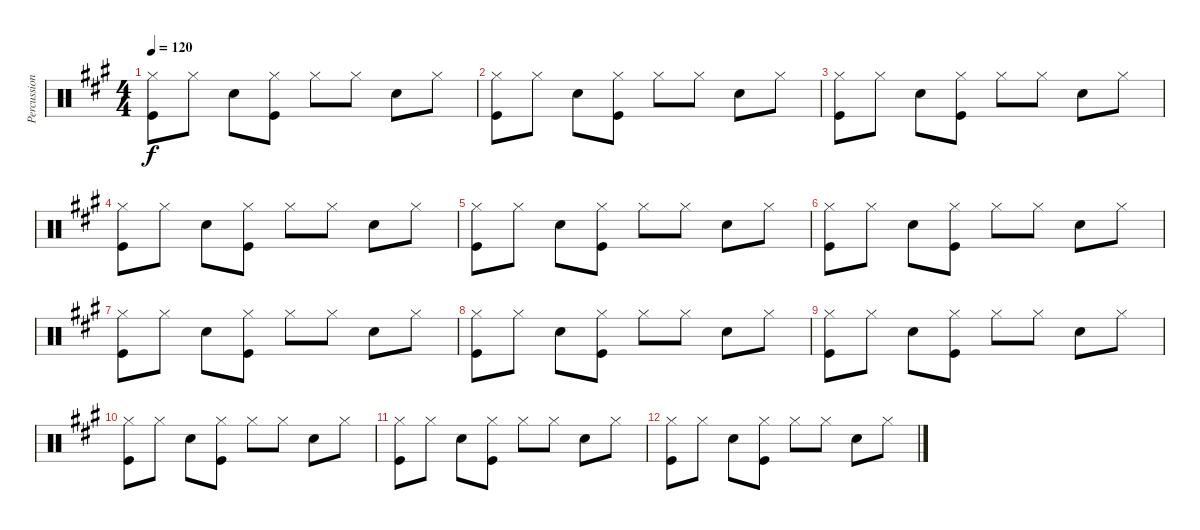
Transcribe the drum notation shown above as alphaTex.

\track ("Percussions" "Percussion") {instrument percussion}
\staff {score}
\articulation defaults
\ts (4 4)
\tempo 120
\clef neutral
\ks a
("Kick (hit)" "Hi-Hat (closed)").8{dy f} "Hi-Hat (closed)".8 "Snare (hit) 2".8 ("Hi-Hat (closed)" "Kick (hit)").8 "Hi-Hat (closed)".8 "Hi-Hat (closed)".8 "Snare (hit) 2".8 "Hi-Hat (closed)".8 |
("Kick (hit)" "Hi-Hat (closed)").8 "Hi-Hat (closed)".8 "Snare (hit) 2".8 ("Hi-Hat (closed)" "Kick (hit)").8 "Hi-Hat (closed)".8 "Hi-Hat (closed)".8 "Snare (hit) 2".8 "Hi-Hat (closed)".8 |
("Kick (hit)" "Hi-Hat (closed)").8 "Hi-Hat (closed)".8 "Snare (hit) 2".8 ("Hi-Hat (closed)" "Kick (hit)").8 "Hi-Hat (closed)".8 "Hi-Hat (closed)".8 "Snare (hit) 2".8 "Hi-Hat (closed)".8 |
("Kick (hit)" "Hi-Hat (closed)").8 "Hi-Hat (closed)".8 "Snare (hit) 2".8 ("Hi-Hat (closed)" "Kick (hit)").8 "Hi-Hat (closed)".8 "Hi-Hat (closed)".8 "Snare (hit) 2".8 "Hi-Hat (closed)".8 |
("Kick (hit)" "Hi-Hat (closed)").8 "Hi-Hat (closed)".8 "Snare (hit) 2".8 ("Hi-Hat (closed)" "Kick (hit)").8 "Hi-Hat (closed)".8 "Hi-Hat (closed)".8 "Snare (hit) 2".8 "Hi-Hat (closed)".8 |
("Kick (hit)" "Hi-Hat (closed)").8 "Hi-Hat (closed)".8 "Snare (hit) 2".8 ("Hi-Hat (closed)" "Kick (hit)").8 "Hi-Hat (closed)".8 "Hi-Hat (closed)".8 "Snare (hit) 2".8 "Hi-Hat (closed)".8 |
("Kick (hit)" "Hi-Hat (closed)").8 "Hi-Hat (closed)".8 "Snare (hit) 2".8 ("Hi-Hat (closed)" "Kick (hit)").8 "Hi-Hat (closed)".8 "Hi-Hat (closed)".8 "Snare (hit) 2".8 "Hi-Hat (closed)".8 |
("Kick (hit)" "Hi-Hat (closed)").8 "Hi-Hat (closed)".8 "Snare (hit) 2".8 ("Hi-Hat (closed)" "Kick (hit)").8 "Hi-Hat (closed)".8 "Hi-Hat (closed)".8 "Snare (hit) 2".8 "Hi-Hat (closed)".8 |
("Kick (hit)" "Hi-Hat (closed)").8 "Hi-Hat (closed)".8 "Snare (hit) 2".8 ("Hi-Hat (closed)" "Kick (hit)").8 "Hi-Hat (closed)".8 "Hi-Hat (closed)".8 "Snare (hit) 2".8 "Hi-Hat (closed)".8 |
("Kick (hit)" "Hi-Hat (closed)").8 "Hi-Hat (closed)".8 "Snare (hit) 2".8 ("Hi-Hat (closed)" "Kick (hit)").8 "Hi-Hat (closed)".8 "Hi-Hat (closed)".8 "Snare (hit) 2".8 "Hi-Hat (closed)".8 |
("Kick (hit)" "Hi-Hat (closed)").8 "Hi-Hat (closed)".8 "Snare (hit) 2".8 ("Hi-Hat (closed)" "Kick (hit)").8 "Hi-Hat (closed)".8 "Hi-Hat (closed)".8 "Snare (hit) 2".8 "Hi-Hat (closed)".8 |
("Kick (hit)" "Hi-Hat (closed)").8 "Hi-Hat (closed)".8 "Snare (hit) 2".8 ("Hi-Hat (closed)" "Kick (hit)").8 "Hi-Hat (closed)".8 "Hi-Hat (closed)".8 "Snare (hit) 2".8 "Hi-Hat (closed)".8
